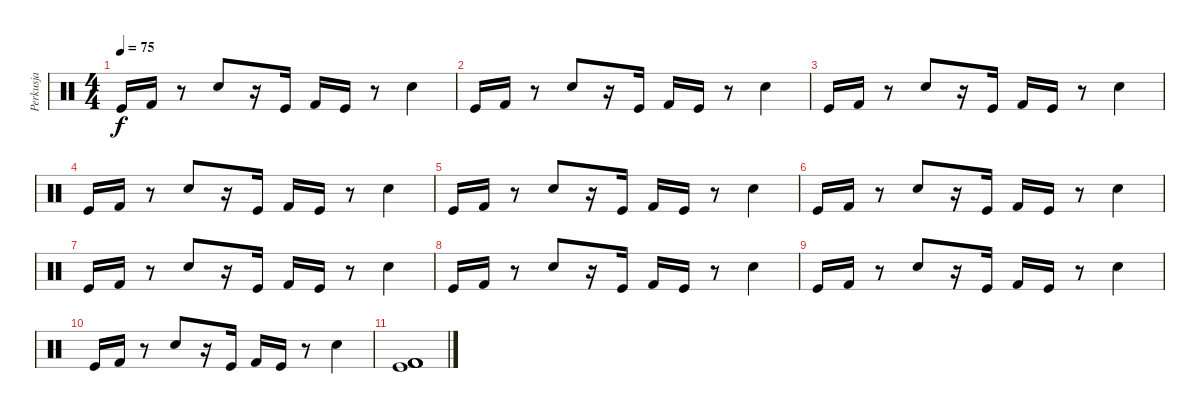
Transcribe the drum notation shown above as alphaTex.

\track ("Perkusja" "Perkusja") {instrument percussion}
\staff {score}
\articulation defaults
\ts (4 4)
\tempo 75
\clef neutral
\ks c "Kick (hit)".16{dy f} "Kick (hit) 2".16
r.8 "Snare (hit) 2".8 r.16 "Kick (hit)".16 "Kick (hit) 2".16 "Kick (hit)".16 r.8 "Snare (hit) 2".4 |
"Kick (hit)".16 "Kick (hit) 2".16 r.8 "Snare (hit) 2".8 r.16 "Kick (hit)".16 "Kick (hit) 2".16 "Kick (hit)".16 r.8 "Snare (hit) 2".4 |
"Kick (hit)".16 "Kick (hit) 2".16 r.8 "Snare (hit) 2".8 r.16 "Kick (hit)".16 "Kick (hit) 2".16 "Kick (hit)".16 r.8 "Snare (hit) 2".4 |
"Kick (hit)".16 "Kick (hit) 2".16 r.8 "Snare (hit) 2".8 r.16 "Kick (hit)".16 "Kick (hit) 2".16 "Kick (hit)".16 r.8 "Snare (hit) 2".4 |
"Kick (hit)".16 "Kick (hit) 2".16 r.8 "Snare (hit) 2".8 r.16 "Kick (hit)".16 "Kick (hit) 2".16 "Kick (hit)".16 r.8 "Snare (hit) 2".4 |
"Kick (hit)".16 "Kick (hit) 2".16 r.8 "Snare (hit) 2".8 r.16 "Kick (hit)".16 "Kick (hit) 2".16 "Kick (hit)".16 r.8 "Snare (hit) 2".4 |
"Kick (hit)".16 "Kick (hit) 2".16 r.8 "Snare (hit) 2".8 r.16 "Kick (hit)".16 "Kick (hit) 2".16 "Kick (hit)".16 r.8 "Snare (hit) 2".4 |
"Kick (hit)".16 "Kick (hit) 2".16 r.8 "Snare (hit) 2".8 r.16 "Kick (hit)".16 "Kick (hit) 2".16 "Kick (hit)".16 r.8 "Snare (hit) 2".4 |
"Kick (hit)".16 "Kick (hit) 2".16 r.8 "Snare (hit) 2".8 r.16 "Kick (hit)".16 "Kick (hit) 2".16 "Kick (hit)".16 r.8 "Snare (hit) 2".4 |
"Kick (hit)".16 "Kick (hit) 2".16 r.8 "Snare (hit) 2".8 r.16 "Kick (hit)".16 "Kick (hit) 2".16 "Kick (hit)".16 r.8 "Snare (hit) 2".4 |
("Kick (hit)" "Kick (hit) 2" "Kick (hit) 2" "Kick (hit) 2").1
